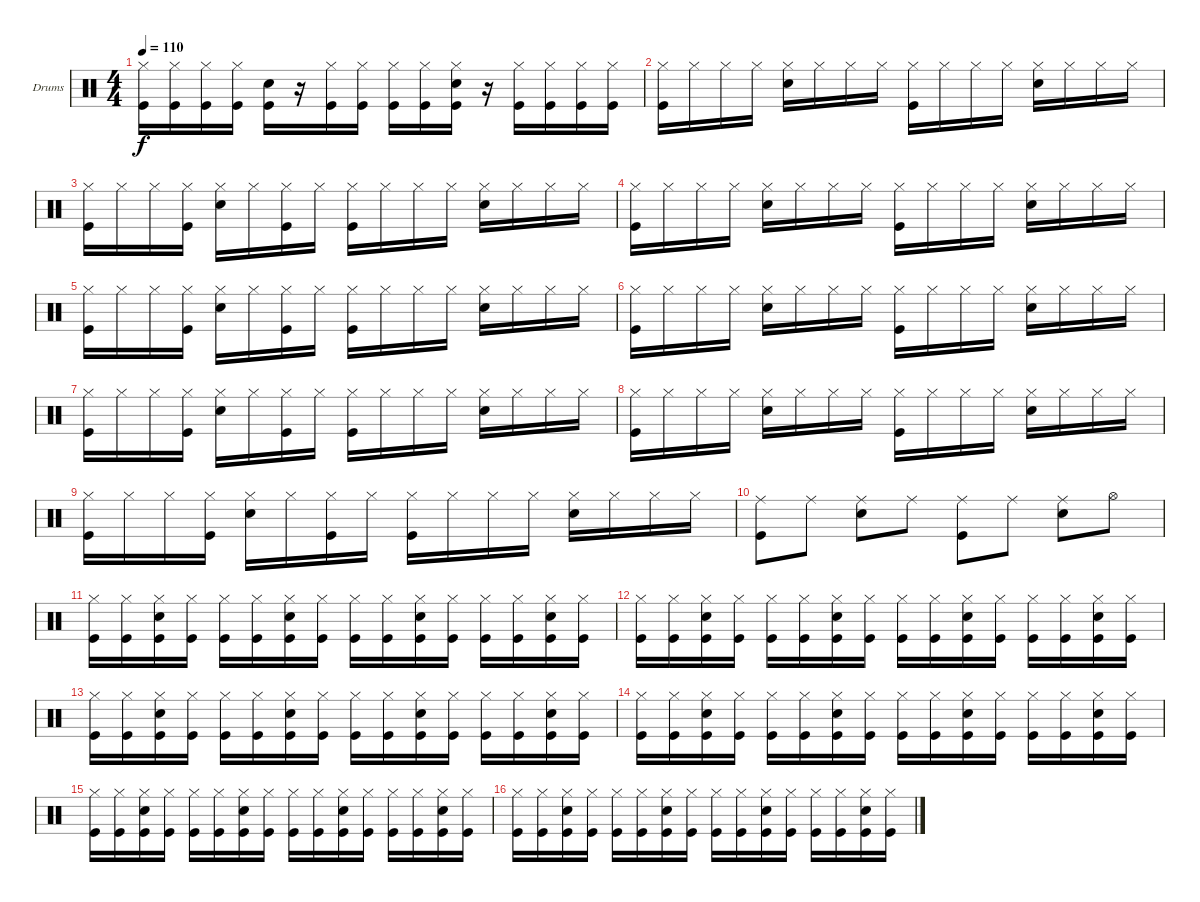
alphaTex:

\bracketExtendMode groupsimilarinstruments
\firstSystemTrackNameOrientation horizontal
\otherSystemsTrackNameOrientation horizontal
\track ("Drumkit" "Drums") {instrument percussion}
\staff {score}
\articulation defaults
\ts (4 4)
\tempo 110
\clef neutral
\scale
0.333333
\ks c
("Kick (hit)" "Hi-Hat (closed)").16{dy f} ("Kick (hit)" "Hi-Hat (closed)").16 ("Kick (hit)" "Hi-Hat (closed)").16 ("Kick (hit)" "Hi-Hat (closed)").16 ("Kick (hit)" "Snare (hit) 2").16 r.16 ("Kick (hit)" "Hi-Hat (closed)").16 ("Kick (hit)" "Hi-Hat (closed)").16 ("Kick (hit)" "Hi-Hat (closed)").16 ("Kick (hit)" "Hi-Hat (closed)").16 ("Kick (hit)" "Snare (hit) 2" "Hi-Hat (closed)").16 r.16 ("Kick (hit)" "Hi-Hat (closed)").16 ("Kick (hit)" "Hi-Hat (closed)").16 ("Kick (hit)" "Hi-Hat (closed)").16 ("Kick (hit)" "Hi-Hat (closed)").16 |
\scale
0.333333 ("Kick (hit)" "Hi-Hat (closed)").16 "Hi-Hat (closed)".16 "Hi-Hat (closed)".16 "Hi-Hat (closed)".16 ("Snare (hit) 2" "Hi-Hat (closed)").16 "Hi-Hat (closed)".16 "Hi-Hat (closed)".16 "Hi-Hat (closed)".16 ("Kick (hit)" "Hi-Hat (closed)").16 "Hi-Hat (closed)".16 "Hi-Hat (closed)".16 "Hi-Hat (closed)".16 ("Snare (hit) 2" "Hi-Hat (closed)").16 "Hi-Hat (closed)".16 "Hi-Hat (closed)".16 "Hi-Hat (closed)".16 |
\scale
0.333333 ("Kick (hit)" "Hi-Hat (closed)").16 "Hi-Hat (closed)".16 "Hi-Hat (closed)".16 ("Hi-Hat (closed)" "Kick (hit)").16 ("Snare (hit) 2" "Hi-Hat (closed)").16 "Hi-Hat (closed)".16 ("Hi-Hat (closed)" "Kick (hit)").16 "Hi-Hat (closed)".16 ("Kick (hit)" "Hi-Hat (closed)").16 "Hi-Hat (closed)".16 "Hi-Hat (closed)".16 "Hi-Hat (closed)".16 ("Snare (hit) 2" "Hi-Hat (closed)").16 "Hi-Hat (closed)".16 "Hi-Hat (closed)".16 "Hi-Hat (closed)".16 |
\scale
0.333333 ("Kick (hit)" "Hi-Hat (closed)").16 "Hi-Hat (closed)".16 "Hi-Hat (closed)".16 "Hi-Hat (closed)".16 ("Snare (hit) 2" "Hi-Hat (closed)").16 "Hi-Hat (closed)".16 "Hi-Hat (closed)".16 "Hi-Hat (closed)".16 ("Kick (hit)" "Hi-Hat (closed)").16 "Hi-Hat (closed)".16 "Hi-Hat (closed)".16 "Hi-Hat (closed)".16 ("Snare (hit) 2" "Hi-Hat (closed)").16 "Hi-Hat (closed)".16 "Hi-Hat (closed)".16 "Hi-Hat (closed)".16 |
\scale
0.333333 ("Kick (hit)" "Hi-Hat (closed)").16 "Hi-Hat (closed)".16 "Hi-Hat (closed)".16 ("Hi-Hat (closed)" "Kick (hit)").16 ("Snare (hit) 2" "Hi-Hat (closed)").16 "Hi-Hat (closed)".16 ("Hi-Hat (closed)" "Kick (hit)").16 "Hi-Hat (closed)".16 ("Kick (hit)" "Hi-Hat (closed)").16 "Hi-Hat (closed)".16 "Hi-Hat (closed)".16 "Hi-Hat (closed)".16 ("Snare (hit) 2" "Hi-Hat (closed)").16 "Hi-Hat (closed)".16 "Hi-Hat (closed)".16 "Hi-Hat (closed)".16 |
\scale
0.333333 ("Kick (hit)" "Hi-Hat (closed)").16 "Hi-Hat (closed)".16 "Hi-Hat (closed)".16 "Hi-Hat (closed)".16 ("Snare (hit) 2" "Hi-Hat (closed)").16 "Hi-Hat (closed)".16 "Hi-Hat (closed)".16 "Hi-Hat (closed)".16 ("Kick (hit)" "Hi-Hat (closed)").16 "Hi-Hat (closed)".16 "Hi-Hat (closed)".16 "Hi-Hat (closed)".16 ("Snare (hit) 2" "Hi-Hat (closed)").16 "Hi-Hat (closed)".16 "Hi-Hat (closed)".16 "Hi-Hat (closed)".16 |
\scale
0.333333 ("Kick (hit)" "Hi-Hat (closed)").16 "Hi-Hat (closed)".16 "Hi-Hat (closed)".16 ("Hi-Hat (closed)" "Kick (hit)").16 ("Snare (hit) 2" "Hi-Hat (closed)").16 "Hi-Hat (closed)".16 ("Hi-Hat (closed)" "Kick (hit)").16 "Hi-Hat (closed)".16 ("Kick (hit)" "Hi-Hat (closed)").16 "Hi-Hat (closed)".16 "Hi-Hat (closed)".16 "Hi-Hat (closed)".16 ("Snare (hit) 2" "Hi-Hat (closed)").16 "Hi-Hat (closed)".16 "Hi-Hat (closed)".16 "Hi-Hat (closed)".16 |
\scale
0.333333 ("Kick (hit)" "Hi-Hat (closed)").16 "Hi-Hat (closed)".16 "Hi-Hat (closed)".16 "Hi-Hat (closed)".16 ("Snare (hit) 2" "Hi-Hat (closed)").16 "Hi-Hat (closed)".16 "Hi-Hat (closed)".16 "Hi-Hat (closed)".16 ("Kick (hit)" "Hi-Hat (closed)").16 "Hi-Hat (closed)".16 "Hi-Hat (closed)".16 "Hi-Hat (closed)".16 ("Snare (hit) 2" "Hi-Hat (closed)").16 "Hi-Hat (closed)".16 "Hi-Hat (closed)".16 "Hi-Hat (closed)".16 |
\scale
0.333333 ("Kick (hit)" "Hi-Hat (closed)").16 "Hi-Hat (closed)".16 "Hi-Hat (closed)".16 ("Hi-Hat (closed)" "Kick (hit)").16 ("Snare (hit) 2" "Hi-Hat (closed)").16 "Hi-Hat (closed)".16 ("Hi-Hat (closed)" "Kick (hit)").16 "Hi-Hat (closed)".16 ("Kick (hit)" "Hi-Hat (closed)").16 "Hi-Hat (closed)".16 "Hi-Hat (closed)".16 "Hi-Hat (closed)".16 ("Snare (hit) 2" "Hi-Hat (closed)").16 "Hi-Hat (closed)".16 "Hi-Hat (closed)".16 "Hi-Hat (closed)".16 |
\scale
0.333333 ("Kick (hit)" "Ride (middle)").8 "Ride (middle)".8 ("Snare (hit) 2" "Ride (middle)").8 "Ride (middle)".8 ("Kick (hit)" "Ride (middle)").8 "Ride (middle)".8 ("Snare (hit) 2" "Ride (middle)").8 "Hi-Hat (open)".8 |
\scale
0.333333 ("Kick (hit)" "Hi-Hat (closed)").16 ("Kick (hit)" "Hi-Hat (closed)").16 ("Kick (hit)" "Snare (hit) 2" "Hi-Hat (closed)").16 ("Kick (hit)" "Hi-Hat (closed)").16 ("Kick (hit)" "Hi-Hat (closed)").16 ("Kick (hit)" "Hi-Hat (closed)").16 ("Kick (hit)" "Snare (hit) 2" "Hi-Hat (closed)").16 ("Kick (hit)" "Hi-Hat (closed)").16 ("Kick (hit)" "Hi-Hat (closed)").16 ("Kick (hit)" "Hi-Hat (closed)").16 ("Kick (hit)" "Snare (hit) 2" "Hi-Hat (closed)").16 ("Kick (hit)" "Hi-Hat (closed)").16 ("Kick (hit)" "Hi-Hat (closed)").16 ("Kick (hit)" "Hi-Hat (closed)").16 ("Kick (hit)" "Snare (hit) 2" "Hi-Hat (closed)").16 ("Kick (hit)" "Hi-Hat (closed)").16 |
\scale
0.333333 ("Kick (hit)" "Hi-Hat (closed)").16 ("Kick (hit)" "Hi-Hat (closed)").16 ("Kick (hit)" "Snare (hit) 2" "Hi-Hat (closed)").16 ("Kick (hit)" "Hi-Hat (closed)").16 ("Kick (hit)" "Hi-Hat (closed)").16 ("Kick (hit)" "Hi-Hat (closed)").16 ("Kick (hit)" "Snare (hit) 2" "Hi-Hat (closed)").16 ("Kick (hit)" "Hi-Hat (closed)").16 ("Kick (hit)" "Hi-Hat (closed)").16 ("Kick (hit)" "Hi-Hat (closed)").16 ("Kick (hit)" "Snare (hit) 2" "Hi-Hat (closed)").16 ("Kick (hit)" "Hi-Hat (closed)").16 ("Kick (hit)" "Hi-Hat (closed)").16 ("Kick (hit)" "Hi-Hat (closed)").16 ("Kick (hit)" "Snare (hit) 2" "Hi-Hat (closed)").16 ("Kick (hit)" "Hi-Hat (closed)").16 |
\scale
0.333333 ("Kick (hit)" "Hi-Hat (closed)").16 ("Kick (hit)" "Hi-Hat (closed)").16 ("Kick (hit)" "Snare (hit) 2" "Hi-Hat (closed)").16 ("Kick (hit)" "Hi-Hat (closed)").16 ("Kick (hit)" "Hi-Hat (closed)").16 ("Kick (hit)" "Hi-Hat (closed)").16 ("Kick (hit)" "Snare (hit) 2" "Hi-Hat (closed)").16 ("Kick (hit)" "Hi-Hat (closed)").16 ("Kick (hit)" "Hi-Hat (closed)").16 ("Kick (hit)" "Hi-Hat (closed)").16 ("Kick (hit)" "Snare (hit) 2" "Hi-Hat (closed)").16 ("Kick (hit)" "Hi-Hat (closed)").16 ("Kick (hit)" "Hi-Hat (closed)").16 ("Kick (hit)" "Hi-Hat (closed)").16 ("Kick (hit)" "Snare (hit) 2" "Hi-Hat (closed)").16 ("Kick (hit)" "Hi-Hat (closed)").16 |
\scale
0.333333 ("Kick (hit)" "Hi-Hat (closed)").16 ("Kick (hit)" "Hi-Hat (closed)").16 ("Kick (hit)" "Snare (hit) 2" "Hi-Hat (closed)").16 ("Kick (hit)" "Hi-Hat (closed)").16 ("Kick (hit)" "Hi-Hat (closed)").16 ("Kick (hit)" "Hi-Hat (closed)").16 ("Kick (hit)" "Snare (hit) 2" "Hi-Hat (closed)").16 ("Kick (hit)" "Hi-Hat (closed)").16 ("Kick (hit)" "Hi-Hat (closed)").16 ("Kick (hit)" "Hi-Hat (closed)").16 ("Kick (hit)" "Snare (hit) 2" "Hi-Hat (closed)").16 ("Kick (hit)" "Hi-Hat (closed)").16 ("Kick (hit)" "Hi-Hat (closed)").16 ("Kick (hit)" "Hi-Hat (closed)").16 ("Kick (hit)" "Snare (hit) 2" "Hi-Hat (closed)").16 ("Kick (hit)" "Hi-Hat (closed)").16 |
\scale
0.333333 ("Kick (hit)" "Hi-Hat (closed)").16 ("Kick (hit)" "Hi-Hat (closed)").16 ("Kick (hit)" "Snare (hit) 2" "Hi-Hat (closed)").16 ("Kick (hit)" "Hi-Hat (closed)").16 ("Kick (hit)" "Hi-Hat (closed)").16 ("Kick (hit)" "Hi-Hat (closed)").16 ("Kick (hit)" "Snare (hit) 2" "Hi-Hat (closed)").16 ("Kick (hit)" "Hi-Hat (closed)").16 ("Kick (hit)" "Hi-Hat (closed)").16 ("Kick (hit)" "Hi-Hat (closed)").16 ("Kick (hit)" "Snare (hit) 2" "Hi-Hat (closed)").16 ("Kick (hit)" "Hi-Hat (closed)").16 ("Kick (hit)" "Hi-Hat (closed)").16 ("Kick (hit)" "Hi-Hat (closed)").16 ("Kick (hit)" "Snare (hit) 2" "Hi-Hat (closed)").16 ("Kick (hit)" "Hi-Hat (closed)").16 |
\scale
0.333333 ("Kick (hit)" "Hi-Hat (closed)").16 ("Kick (hit)" "Hi-Hat (closed)").16 ("Kick (hit)" "Snare (hit) 2" "Hi-Hat (closed)").16 ("Kick (hit)" "Hi-Hat (closed)").16 ("Kick (hit)" "Hi-Hat (closed)").16 ("Kick (hit)" "Hi-Hat (closed)").16 ("Kick (hit)" "Snare (hit) 2" "Hi-Hat (closed)").16 ("Kick (hit)" "Hi-Hat (closed)").16 ("Kick (hit)" "Hi-Hat (closed)").16 ("Kick (hit)" "Hi-Hat (closed)").16 ("Kick (hit)" "Snare (hit) 2" "Hi-Hat (closed)").16 ("Kick (hit)" "Hi-Hat (closed)").16 ("Kick (hit)" "Hi-Hat (closed)").16 ("Kick (hit)" "Hi-Hat (closed)").16 ("Kick (hit)" "Snare (hit) 2" "Hi-Hat (closed)").16 ("Kick (hit)" "Hi-Hat (closed)").16
